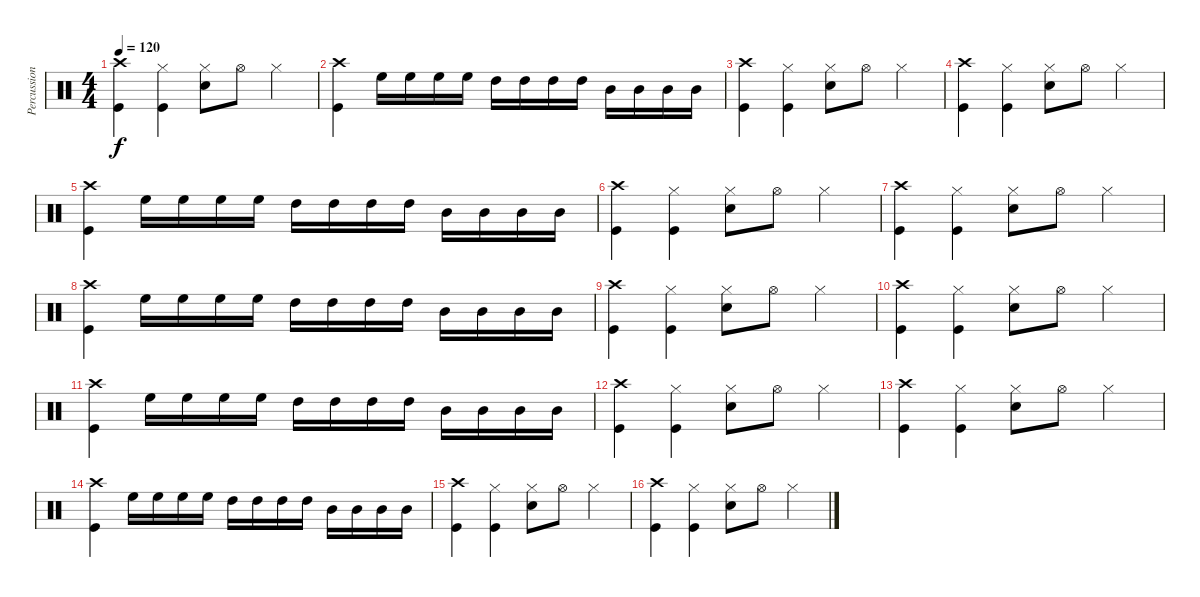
\track ("Percussion" "Percussion") {instrument percussion}
\staff {score}
\articulation defaults
\ts (4 4)
\tempo 120
\clef neutral
\ks c
("Crash high (hit)" "Kick (hit)").4{dy f} ("Hi-Hat (closed)" "Kick (hit)").4 ("Hi-Hat (closed)" "Snare (hit) 2").8 "Hi-Hat (open)".8 "Hi-Hat (closed)".4 |
("Crash high (hit)" "Kick (hit)").4 "High Floor Tom (hit)".16 "High Floor Tom (hit)".16 "High Floor Tom (hit)".16 "High Floor Tom (hit)".16 "High Tom (hit)".16 "High Tom (hit)".16 "High Tom (hit)".16 "High Tom (hit)".16 "Mid Tom (hit)".16 "Mid Tom (hit)".16 "Mid Tom (hit)".16 "Mid Tom (hit)".16 |
("Crash high (hit)" "Kick (hit)").4 ("Hi-Hat (closed)" "Kick (hit)").4 ("Hi-Hat (closed)" "Snare (hit) 2").8 "Hi-Hat (open)".8 "Hi-Hat (closed)".4 |
("Crash high (hit)" "Kick (hit)").4 ("Hi-Hat (closed)" "Kick (hit)").4 ("Hi-Hat (closed)" "Snare (hit) 2").8 "Hi-Hat (open)".8 "Hi-Hat (closed)".4 |
("Crash high (hit)" "Kick (hit)").4 "High Floor Tom (hit)".16 "High Floor Tom (hit)".16 "High Floor Tom (hit)".16 "High Floor Tom (hit)".16 "High Tom (hit)".16 "High Tom (hit)".16 "High Tom (hit)".16 "High Tom (hit)".16 "Mid Tom (hit)".16 "Mid Tom (hit)".16 "Mid Tom (hit)".16 "Mid Tom (hit)".16 |
("Crash high (hit)" "Kick (hit)").4 ("Hi-Hat (closed)" "Kick (hit)").4 ("Hi-Hat (closed)" "Snare (hit) 2").8 "Hi-Hat (open)".8 "Hi-Hat (closed)".4 |
("Crash high (hit)" "Kick (hit)").4 ("Hi-Hat (closed)" "Kick (hit)").4 ("Hi-Hat (closed)" "Snare (hit) 2").8 "Hi-Hat (open)".8 "Hi-Hat (closed)".4 |
("Crash high (hit)" "Kick (hit)").4 "High Floor Tom (hit)".16 "High Floor Tom (hit)".16 "High Floor Tom (hit)".16 "High Floor Tom (hit)".16 "High Tom (hit)".16 "High Tom (hit)".16 "High Tom (hit)".16 "High Tom (hit)".16 "Mid Tom (hit)".16 "Mid Tom (hit)".16 "Mid Tom (hit)".16 "Mid Tom (hit)".16 |
("Crash high (hit)" "Kick (hit)").4 ("Hi-Hat (closed)" "Kick (hit)").4 ("Hi-Hat (closed)" "Snare (hit) 2").8 "Hi-Hat (open)".8 "Hi-Hat (closed)".4 |
("Crash high (hit)" "Kick (hit)").4 ("Hi-Hat (closed)" "Kick (hit)").4 ("Hi-Hat (closed)" "Snare (hit) 2").8 "Hi-Hat (open)".8 "Hi-Hat (closed)".4 |
("Crash high (hit)" "Kick (hit)").4 "High Floor Tom (hit)".16 "High Floor Tom (hit)".16 "High Floor Tom (hit)".16 "High Floor Tom (hit)".16 "High Tom (hit)".16 "High Tom (hit)".16 "High Tom (hit)".16 "High Tom (hit)".16 "Mid Tom (hit)".16 "Mid Tom (hit)".16 "Mid Tom (hit)".16 "Mid Tom (hit)".16 |
("Crash high (hit)" "Kick (hit)").4 ("Hi-Hat (closed)" "Kick (hit)").4 ("Hi-Hat (closed)" "Snare (hit) 2").8 "Hi-Hat (open)".8 "Hi-Hat (closed)".4 |
("Crash high (hit)" "Kick (hit)").4 ("Hi-Hat (closed)" "Kick (hit)").4 ("Hi-Hat (closed)" "Snare (hit) 2").8 "Hi-Hat (open)".8 "Hi-Hat (closed)".4 |
("Crash high (hit)" "Kick (hit)").4 "High Floor Tom (hit)".16 "High Floor Tom (hit)".16 "High Floor Tom (hit)".16 "High Floor Tom (hit)".16 "High Tom (hit)".16 "High Tom (hit)".16 "High Tom (hit)".16 "High Tom (hit)".16 "Mid Tom (hit)".16 "Mid Tom (hit)".16 "Mid Tom (hit)".16 "Mid Tom (hit)".16 |
("Crash high (hit)" "Kick (hit)").4 ("Hi-Hat (closed)" "Kick (hit)").4 ("Hi-Hat (closed)" "Snare (hit) 2").8 "Hi-Hat (open)".8 "Hi-Hat (closed)".4 |
("Crash high (hit)" "Kick (hit)").4 ("Hi-Hat (closed)" "Kick (hit)").4 ("Hi-Hat (closed)" "Snare (hit) 2").8 "Hi-Hat (open)".8 "Hi-Hat (closed)".4
